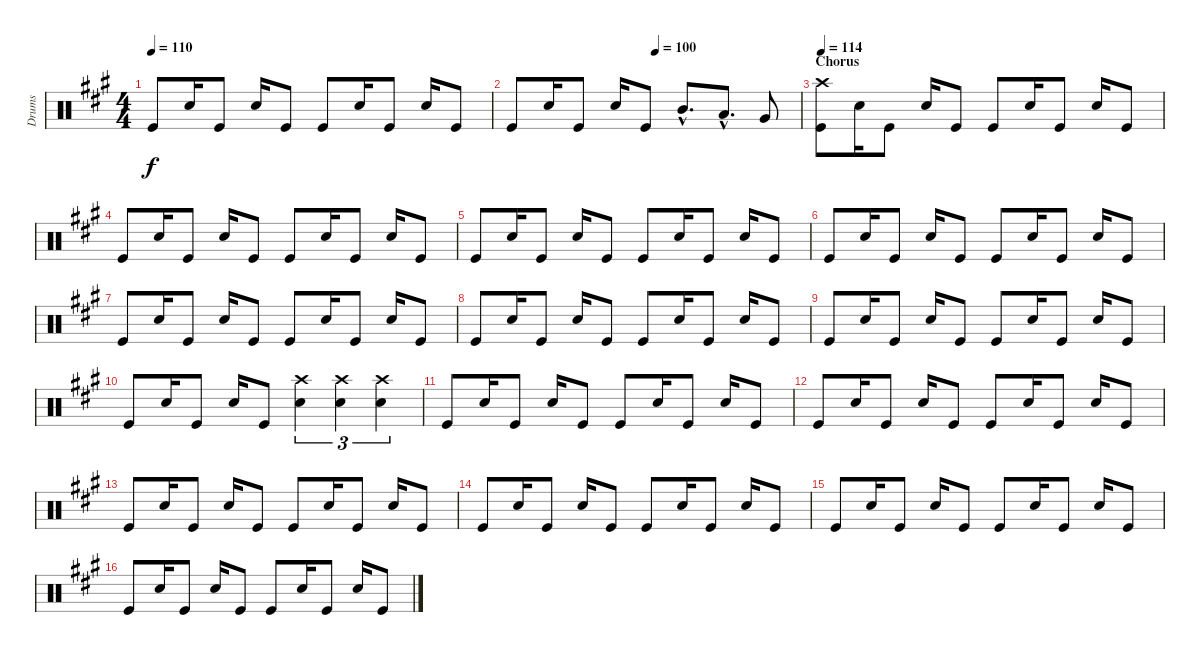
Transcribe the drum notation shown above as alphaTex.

\track ("Drums" "Drums") {instrument percussion}
\staff {score}
\articulation defaults
\ts (4 4)
\tempo 110
\clef neutral
\ks a "Kick (hit)".8{dy f} "Electric Snare (hit)".16 "Kick (hit)".8 "Electric Snare (hit)".16 "Kick (hit)".8 "Kick (hit)".8 "Electric Snare (hit)".16 "Kick (hit)".8 "Electric Snare (hit)".16 "Kick (hit)".8
|
\tempo (100 0.5)
"Kick (hit)".8 "Electric Snare (hit)".16 "Kick (hit)".8 "Electric Snare (hit)".16 "Kick (hit)".8 "Mid Tom (hit)"{hac}.8{d} "Low Tom (hit)"{hac}.8{d} "Very Low Tom (hit)".8 |
\section ("" "Chorus")
\tempo 114
("Crash high (hit)" "Kick (hit)").8 "Electric Snare (hit)".16 "Kick (hit)".8 "Electric Snare (hit)".16 "Kick (hit)".8 "Kick (hit)".8 "Electric Snare (hit)".16 "Kick (hit)".8 "Electric Snare (hit)".16 "Kick (hit)".8 |
"Kick (hit)".8 "Electric Snare (hit)".16 "Kick (hit)".8 "Electric Snare (hit)".16 "Kick (hit)".8 "Kick (hit)".8 "Electric Snare (hit)".16 "Kick (hit)".8 "Electric Snare (hit)".16 "Kick (hit)".8 |
"Kick (hit)".8 "Electric Snare (hit)".16 "Kick (hit)".8 "Electric Snare (hit)".16 "Kick (hit)".8 "Kick (hit)".8 "Electric Snare (hit)".16 "Kick (hit)".8 "Electric Snare (hit)".16 "Kick (hit)".8 |
"Kick (hit)".8 "Electric Snare (hit)".16 "Kick (hit)".8 "Electric Snare (hit)".16 "Kick (hit)".8 "Kick (hit)".8 "Electric Snare (hit)".16 "Kick (hit)".8 "Electric Snare (hit)".16 "Kick (hit)".8 |
"Kick (hit)".8 "Electric Snare (hit)".16 "Kick (hit)".8 "Electric Snare (hit)".16 "Kick (hit)".8 "Kick (hit)".8 "Electric Snare (hit)".16 "Kick (hit)".8 "Electric Snare (hit)".16 "Kick (hit)".8 |
"Kick (hit)".8 "Electric Snare (hit)".16 "Kick (hit)".8 "Electric Snare (hit)".16 "Kick (hit)".8 "Kick (hit)".8 "Electric Snare (hit)".16 "Kick (hit)".8 "Electric Snare (hit)".16 "Kick (hit)".8 |
"Kick (hit)".8 "Electric Snare (hit)".16 "Kick (hit)".8 "Electric Snare (hit)".16 "Kick (hit)".8 "Kick (hit)".8 "Electric Snare (hit)".16 "Kick (hit)".8 "Electric Snare (hit)".16 "Kick (hit)".8 |
"Kick (hit)".8 "Electric Snare (hit)".16 "Kick (hit)".8 "Electric Snare (hit)".16 "Kick (hit)".8 ("Crash high (hit)" "Electric Snare (hit)").4{tu (3 2)} ("Crash high (hit)" "Electric Snare (hit)").4{tu (3 2)} ("Crash high (hit)" "Electric Snare (hit)").4{tu (3 2)} |
"Kick (hit)".8 "Electric Snare (hit)".16 "Kick (hit)".8 "Electric Snare (hit)".16 "Kick (hit)".8 "Kick (hit)".8 "Electric Snare (hit)".16 "Kick (hit)".8 "Electric Snare (hit)".16 "Kick (hit)".8 |
"Kick (hit)".8 "Electric Snare (hit)".16 "Kick (hit)".8 "Electric Snare (hit)".16 "Kick (hit)".8 "Kick (hit)".8 "Electric Snare (hit)".16 "Kick (hit)".8 "Electric Snare (hit)".16 "Kick (hit)".8 |
"Kick (hit)".8 "Electric Snare (hit)".16 "Kick (hit)".8 "Electric Snare (hit)".16 "Kick (hit)".8 "Kick (hit)".8 "Electric Snare (hit)".16 "Kick (hit)".8 "Electric Snare (hit)".16 "Kick (hit)".8 |
"Kick (hit)".8 "Electric Snare (hit)".16 "Kick (hit)".8 "Electric Snare (hit)".16 "Kick (hit)".8 "Kick (hit)".8 "Electric Snare (hit)".16 "Kick (hit)".8 "Electric Snare (hit)".16 "Kick (hit)".8 |
"Kick (hit)".8 "Electric Snare (hit)".16 "Kick (hit)".8 "Electric Snare (hit)".16 "Kick (hit)".8 "Kick (hit)".8 "Electric Snare (hit)".16 "Kick (hit)".8 "Electric Snare (hit)".16 "Kick (hit)".8 |
"Kick (hit)".8 "Electric Snare (hit)".16 "Kick (hit)".8 "Electric Snare (hit)".16 "Kick (hit)".8 "Kick (hit)".8 "Electric Snare (hit)".16 "Kick (hit)".8 "Electric Snare (hit)".16 "Kick (hit)".8
